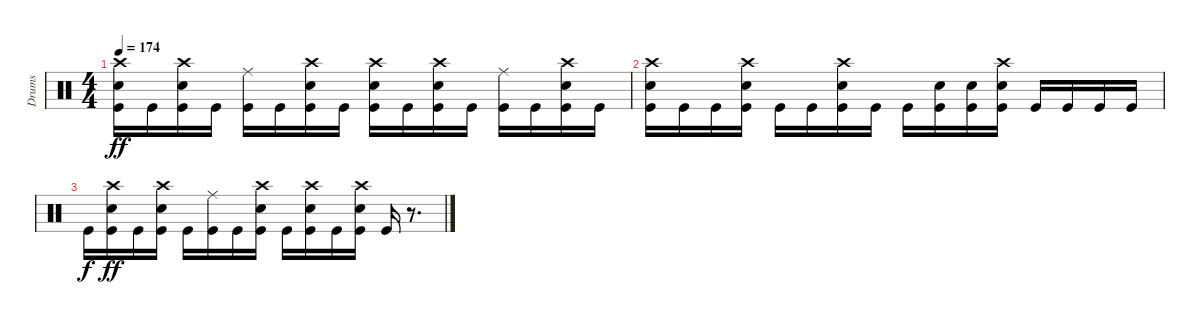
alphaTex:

\track ("Drums" "Drums") {instrument percussion}
\staff {score}
\articulation defaults
\ts (4 4)
\tempo 174
\clef neutral
\ks c
("Crash high (hit)" "Electric Snare (hit)" "Kick (hit)").16{dy ff} "Kick (hit)".16 ("Crash high (hit)" "Electric Snare (hit)" "Kick (hit)").16 "Kick (hit)".16 ("Ride (middle)" "Kick (hit)").16 "Kick (hit)".16 ("Crash high (hit)" "Electric Snare (hit)" "Kick (hit)").16 "Kick (hit)".16 ("Crash high (hit)" "Electric Snare (hit)" "Kick (hit)").16 "Kick (hit)".16 ("Crash high (hit)" "Electric Snare (hit)" "Kick (hit)").16 "Kick (hit)".16 ("Ride (middle)" "Kick (hit)").16 "Kick (hit)".16 ("Crash high (hit)" "Electric Snare (hit)" "Kick (hit)").16 "Kick (hit)".16 |
("Crash high (hit)" "Electric Snare (hit)" "Kick (hit)").16 "Kick (hit)".16 "Kick (hit)".16 ("Crash high (hit)" "Electric Snare (hit)" "Kick (hit)").16 "Kick (hit)".16 "Kick (hit)".16 ("Crash high (hit)" "Electric Snare (hit)" "Kick (hit)").16 "Kick (hit)".16 "Kick (hit)".16 ("Electric Snare (hit)" "Kick (hit)").16 ("Electric Snare (hit)" "Kick (hit)").16 ("Crash high (hit)" "Electric Snare (hit)" "Kick (hit)").16 "Kick (hit)".16 "Kick (hit)".16 "Kick (hit)".16 "Kick (hit)".16 |
"Kick (hit)".16{dy f} ("Crash high (hit)" "Electric Snare (hit)" "Kick (hit)").16{dy ff} "Kick (hit)".16 ("Crash high (hit)" "Electric Snare (hit)" "Kick (hit)").16 "Kick (hit)".16 ("Ride (middle)" "Kick (hit)").16 "Kick (hit)".16 ("Crash high (hit)" "Electric Snare (hit)" "Kick (hit)").16 "Kick (hit)".16 ("Crash high (hit)" "Electric Snare (hit)" "Kick (hit)").16 "Kick (hit)".16 ("Crash high (hit)" "Electric Snare (hit)" "Kick (hit)").16 "Kick (hit)".16 r.8{d}
